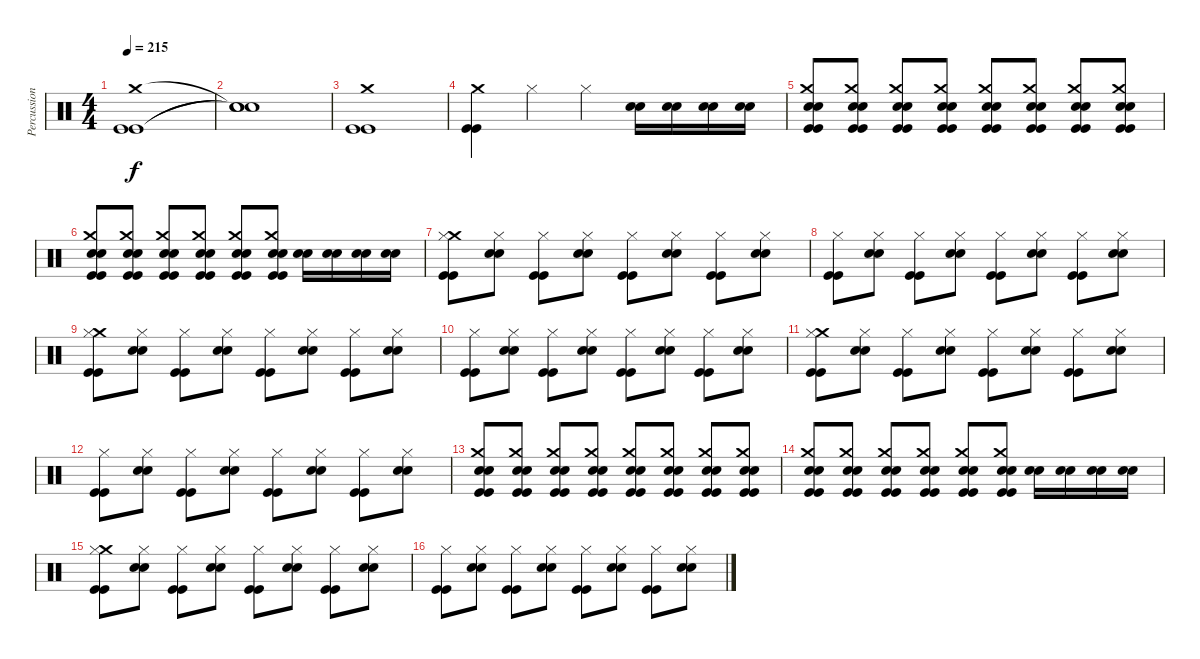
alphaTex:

\track ("Percussion" "Percussion") {instrument percussion}
\staff {score}
\articulation defaults
\ts (4 4)
\tempo 215
\clef neutral
\ks c
("Kick (hit)" "Kick (hit)" "Crash medium (hit)").1{dy f} |
("Snare (hit)"{t} "Snare (hit)"{t} "Snare (hit)"{t}).1 |
("Kick (hit)" "Kick (hit)" "Crash medium (hit)").1 |
("Kick (hit)" "Kick (hit)" "Crash medium (hit)").4 "Hi-Hat (closed)".4 "Hi-Hat (closed)".4 ("Snare (hit) 2" "Snare (hit) 2").16 ("Snare (hit) 2" "Snare (hit) 2").16 ("Snare (hit) 2" "Snare (hit) 2").16 ("Snare (hit) 2" "Snare (hit) 2").16 |
("Snare (hit) 2" "Snare (hit) 2" "Kick (hit)" "Kick (hit)" "Crash medium (hit)").8 ("Snare (hit) 2" "Snare (hit) 2" "Kick (hit)" "Kick (hit)" "Crash medium (hit)").8 ("Snare (hit) 2" "Snare (hit) 2" "Kick (hit)" "Kick (hit)" "Crash medium (hit)").8 ("Snare (hit) 2" "Snare (hit) 2" "Kick (hit)" "Kick (hit)" "Crash medium (hit)").8 ("Snare (hit) 2" "Snare (hit) 2" "Kick (hit)" "Kick (hit)" "Crash medium (hit)").8 ("Snare (hit) 2" "Snare (hit) 2" "Kick (hit)" "Kick (hit)" "Crash medium (hit)").8 ("Snare (hit) 2" "Snare (hit) 2" "Kick (hit)" "Kick (hit)" "Crash medium (hit)").8 ("Snare (hit) 2" "Snare (hit) 2" "Kick (hit)" "Kick (hit)" "Crash medium (hit)").8 |
("Snare (hit) 2" "Snare (hit) 2" "Kick (hit)" "Kick (hit)" "Crash medium (hit)").8 ("Snare (hit) 2" "Snare (hit) 2" "Kick (hit)" "Kick (hit)" "Crash medium (hit)").8 ("Snare (hit) 2" "Snare (hit) 2" "Kick (hit)" "Kick (hit)" "Crash medium (hit)").8 ("Snare (hit) 2" "Snare (hit) 2" "Kick (hit)" "Kick (hit)" "Crash medium (hit)").8 ("Snare (hit) 2" "Snare (hit) 2" "Kick (hit)" "Kick (hit)" "Crash medium (hit)").8 ("Snare (hit) 2" "Snare (hit) 2" "Kick (hit)" "Kick (hit)" "Crash medium (hit)").8 ("Snare (hit) 2" "Snare (hit) 2").16 ("Snare (hit) 2" "Snare (hit) 2").16 ("Snare (hit) 2" "Snare (hit) 2").16 ("Snare (hit) 2" "Snare (hit) 2").16 |
("Crash medium (hit)" "Kick (hit)" "Kick (hit)" "Hi-Hat (closed)").8 ("Snare (hit) 2" "Snare (hit) 2" "Hi-Hat (closed)").8 ("Kick (hit)" "Kick (hit)" "Hi-Hat (closed)").8 ("Snare (hit) 2" "Snare (hit) 2" "Hi-Hat (closed)").8 ("Kick (hit)" "Kick (hit)" "Hi-Hat (closed)").8 ("Snare (hit) 2" "Snare (hit) 2" "Hi-Hat (closed)").8 ("Kick (hit)" "Kick (hit)" "Hi-Hat (closed)").8 ("Snare (hit) 2" "Snare (hit) 2" "Hi-Hat (closed)").8 |
("Kick (hit)" "Kick (hit)" "Hi-Hat (closed)").8 ("Snare (hit) 2" "Snare (hit) 2" "Hi-Hat (closed)").8 ("Kick (hit)" "Kick (hit)" "Hi-Hat (closed)").8 ("Snare (hit) 2" "Snare (hit) 2" "Hi-Hat (closed)").8 ("Kick (hit)" "Kick (hit)" "Hi-Hat (closed)").8 ("Snare (hit) 2" "Snare (hit) 2" "Hi-Hat (closed)").8 ("Kick (hit)" "Kick (hit)" "Hi-Hat (closed)").8 ("Snare (hit) 2" "Snare (hit) 2" "Hi-Hat (closed)").8 |
("Crash medium (hit)" "Kick (hit)" "Kick (hit)" "Hi-Hat (closed)").8 ("Snare (hit) 2" "Snare (hit) 2" "Hi-Hat (closed)").8 ("Kick (hit)" "Kick (hit)" "Hi-Hat (closed)").8 ("Snare (hit) 2" "Snare (hit) 2" "Hi-Hat (closed)").8 ("Kick (hit)" "Kick (hit)" "Hi-Hat (closed)").8 ("Snare (hit) 2" "Snare (hit) 2" "Hi-Hat (closed)").8 ("Kick (hit)" "Kick (hit)" "Hi-Hat (closed)").8 ("Snare (hit) 2" "Snare (hit) 2" "Hi-Hat (closed)").8 |
("Kick (hit)" "Kick (hit)" "Hi-Hat (closed)").8 ("Snare (hit) 2" "Snare (hit) 2" "Hi-Hat (closed)").8 ("Kick (hit)" "Kick (hit)" "Hi-Hat (closed)").8 ("Snare (hit) 2" "Snare (hit) 2" "Hi-Hat (closed)").8 ("Kick (hit)" "Kick (hit)" "Hi-Hat (closed)").8 ("Snare (hit) 2" "Snare (hit) 2" "Hi-Hat (closed)").8 ("Kick (hit)" "Kick (hit)" "Hi-Hat (closed)").8 ("Snare (hit) 2" "Snare (hit) 2" "Hi-Hat (closed)").8 |
("Crash medium (hit)" "Kick (hit)" "Kick (hit)" "Hi-Hat (closed)").8 ("Snare (hit) 2" "Snare (hit) 2" "Hi-Hat (closed)").8 ("Kick (hit)" "Kick (hit)" "Hi-Hat (closed)").8 ("Snare (hit) 2" "Snare (hit) 2" "Hi-Hat (closed)").8 ("Kick (hit)" "Kick (hit)" "Hi-Hat (closed)").8 ("Snare (hit) 2" "Snare (hit) 2" "Hi-Hat (closed)").8 ("Kick (hit)" "Kick (hit)" "Hi-Hat (closed)").8 ("Snare (hit) 2" "Snare (hit) 2" "Hi-Hat (closed)").8 |
("Kick (hit)" "Kick (hit)" "Hi-Hat (closed)").8 ("Snare (hit) 2" "Snare (hit) 2" "Hi-Hat (closed)").8 ("Kick (hit)" "Kick (hit)" "Hi-Hat (closed)").8 ("Snare (hit) 2" "Snare (hit) 2" "Hi-Hat (closed)").8 ("Kick (hit)" "Kick (hit)" "Hi-Hat (closed)").8 ("Snare (hit) 2" "Snare (hit) 2" "Hi-Hat (closed)").8 ("Kick (hit)" "Kick (hit)" "Hi-Hat (closed)").8 ("Snare (hit) 2" "Snare (hit) 2" "Hi-Hat (closed)").8 |
("Snare (hit) 2" "Snare (hit) 2" "Kick (hit)" "Kick (hit)" "Crash medium (hit)").8 ("Snare (hit) 2" "Snare (hit) 2" "Kick (hit)" "Kick (hit)" "Crash medium (hit)").8 ("Snare (hit) 2" "Snare (hit) 2" "Kick (hit)" "Kick (hit)" "Crash medium (hit)").8 ("Snare (hit) 2" "Snare (hit) 2" "Kick (hit)" "Kick (hit)" "Crash medium (hit)").8 ("Snare (hit) 2" "Snare (hit) 2" "Kick (hit)" "Kick (hit)" "Crash medium (hit)").8 ("Snare (hit) 2" "Snare (hit) 2" "Kick (hit)" "Kick (hit)" "Crash medium (hit)").8 ("Snare (hit) 2" "Snare (hit) 2" "Kick (hit)" "Kick (hit)" "Crash medium (hit)").8 ("Snare (hit) 2" "Snare (hit) 2" "Kick (hit)" "Kick (hit)" "Crash medium (hit)").8 |
("Snare (hit) 2" "Snare (hit) 2" "Kick (hit)" "Kick (hit)" "Crash medium (hit)").8 ("Snare (hit) 2" "Snare (hit) 2" "Kick (hit)" "Kick (hit)" "Crash medium (hit)").8 ("Snare (hit) 2" "Snare (hit) 2" "Kick (hit)" "Kick (hit)" "Crash medium (hit)").8 ("Snare (hit) 2" "Snare (hit) 2" "Kick (hit)" "Kick (hit)" "Crash medium (hit)").8 ("Snare (hit) 2" "Snare (hit) 2" "Kick (hit)" "Kick (hit)" "Crash medium (hit)").8 ("Snare (hit) 2" "Snare (hit) 2" "Kick (hit)" "Kick (hit)" "Crash medium (hit)").8 ("Snare (hit) 2" "Snare (hit) 2").16 ("Snare (hit) 2" "Snare (hit) 2").16 ("Snare (hit) 2" "Snare (hit) 2").16 ("Snare (hit) 2" "Snare (hit) 2").16 |
("Crash medium (hit)" "Kick (hit)" "Kick (hit)" "Hi-Hat (closed)").8 ("Snare (hit) 2" "Snare (hit) 2" "Hi-Hat (closed)").8 ("Kick (hit)" "Kick (hit)" "Hi-Hat (closed)").8 ("Snare (hit) 2" "Snare (hit) 2" "Hi-Hat (closed)").8 ("Kick (hit)" "Kick (hit)" "Hi-Hat (closed)").8 ("Snare (hit) 2" "Snare (hit) 2" "Hi-Hat (closed)").8 ("Kick (hit)" "Kick (hit)" "Hi-Hat (closed)").8 ("Snare (hit) 2" "Snare (hit) 2" "Hi-Hat (closed)").8 |
("Kick (hit)" "Kick (hit)" "Hi-Hat (closed)").8 ("Snare (hit) 2" "Snare (hit) 2" "Hi-Hat (closed)").8 ("Kick (hit)" "Kick (hit)" "Hi-Hat (closed)").8 ("Snare (hit) 2" "Snare (hit) 2" "Hi-Hat (closed)").8 ("Kick (hit)" "Kick (hit)" "Hi-Hat (closed)").8 ("Snare (hit) 2" "Snare (hit) 2" "Hi-Hat (closed)").8 ("Kick (hit)" "Kick (hit)" "Hi-Hat (closed)").8 ("Snare (hit) 2" "Snare (hit) 2" "Hi-Hat (closed)").8
